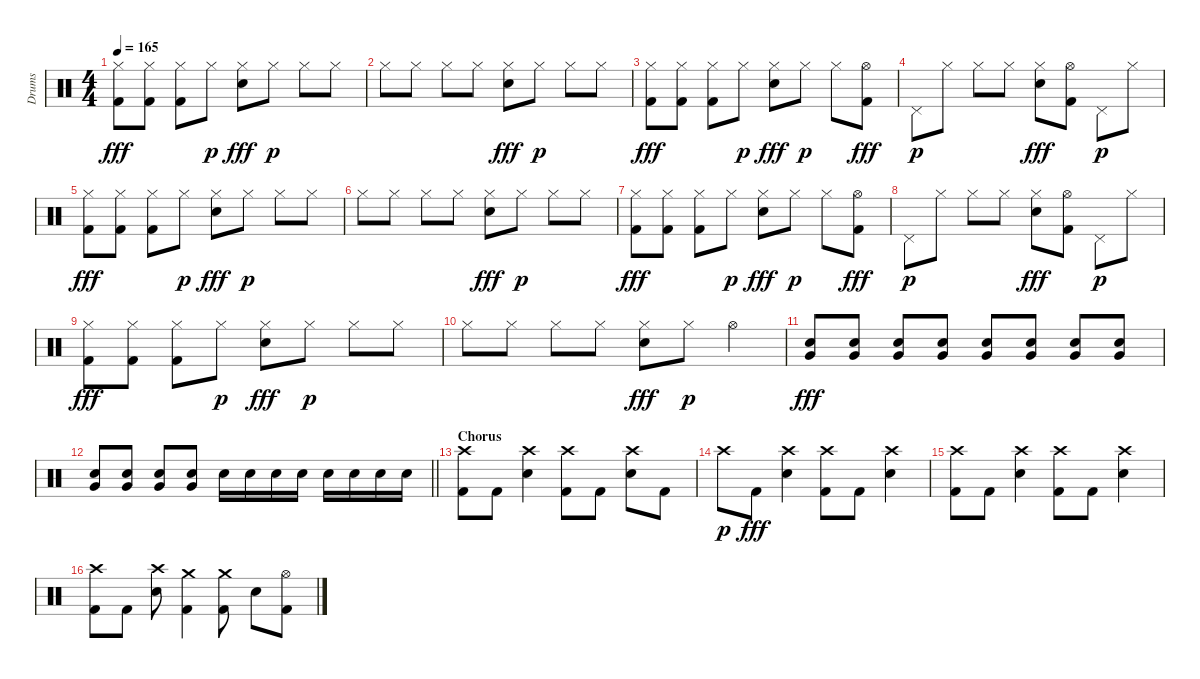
\track ("Drums" "Drums") {instrument percussion}
\staff {score}
\articulation defaults
\ts (4 4)
\tempo 165
\clef neutral
\ks c
("Hi-Hat (closed)" "Kick (hit) 2").8{dy fff} ("Hi-Hat (closed)" "Kick (hit) 2").8 ("Hi-Hat (closed)" "Kick (hit) 2").8 "Hi-Hat (closed)".8{dy p} ("Hi-Hat (closed)" "Electric Snare (hit)").8{dy fff} "Hi-Hat (closed)".8{dy p} "Hi-Hat (closed)".8 "Hi-Hat (closed)".8 |
"Hi-Hat (closed)".8 "Hi-Hat (closed)".8 "Hi-Hat (closed)".8 "Hi-Hat (closed)".8 ("Hi-Hat (closed)" "Electric Snare (hit)").8{dy fff} "Hi-Hat (closed)".8{dy p} "Hi-Hat (closed)".8 "Hi-Hat (closed)".8 |
("Hi-Hat (closed)" "Kick (hit) 2").8{dy fff} ("Hi-Hat (closed)" "Kick (hit) 2").8 ("Hi-Hat (closed)" "Kick (hit) 2").8 "Hi-Hat (closed)".8{dy p} ("Hi-Hat (closed)" "Electric Snare (hit)").8{dy fff} "Hi-Hat (closed)".8{dy p} "Hi-Hat (closed)".8 ("Hi-Hat (open)" "Kick (hit) 2").8{dy fff} |
"Pedal Hi-Hat (hit)".8{dy p} "Hi-Hat (closed)".8 "Hi-Hat (closed)".8 "Hi-Hat (closed)".8 ("Hi-Hat (closed)" "Electric Snare (hit)").8{dy fff} ("Hi-Hat (open)" "Kick (hit) 2").8 "Pedal Hi-Hat (hit)".8{dy p} "Hi-Hat (closed)".8 |
("Hi-Hat (closed)" "Kick (hit) 2").8{dy fff} ("Hi-Hat (closed)" "Kick (hit) 2").8 ("Hi-Hat (closed)" "Kick (hit) 2").8 "Hi-Hat (closed)".8{dy p} ("Hi-Hat (closed)" "Electric Snare (hit)").8{dy fff} "Hi-Hat (closed)".8{dy p} "Hi-Hat (closed)".8 "Hi-Hat (closed)".8 |
"Hi-Hat (closed)".8 "Hi-Hat (closed)".8 "Hi-Hat (closed)".8 "Hi-Hat (closed)".8 ("Hi-Hat (closed)" "Electric Snare (hit)").8{dy fff} "Hi-Hat (closed)".8{dy p} "Hi-Hat (closed)".8 "Hi-Hat (closed)".8 |
("Hi-Hat (closed)" "Kick (hit) 2").8{dy fff} ("Hi-Hat (closed)" "Kick (hit) 2").8 ("Hi-Hat (closed)" "Kick (hit) 2").8 "Hi-Hat (closed)".8{dy p} ("Hi-Hat (closed)" "Electric Snare (hit)").8{dy fff} "Hi-Hat (closed)".8{dy p} "Hi-Hat (closed)".8 ("Hi-Hat (open)" "Kick (hit) 2").8{dy fff} |
"Pedal Hi-Hat (hit)".8{dy p} "Hi-Hat (closed)".8 "Hi-Hat (closed)".8 "Hi-Hat (closed)".8 ("Hi-Hat (closed)" "Electric Snare (hit)").8{dy fff} ("Hi-Hat (open)" "Kick (hit) 2").8 "Pedal Hi-Hat (hit)".8{dy p} "Hi-Hat (closed)".8 |
("Hi-Hat (closed)" "Kick (hit) 2").8{dy fff} ("Hi-Hat (closed)" "Kick (hit) 2").8 ("Hi-Hat (closed)" "Kick (hit) 2").8 "Hi-Hat (closed)".8{dy p} ("Hi-Hat (closed)" "Electric Snare (hit)").8{dy fff} "Hi-Hat (closed)".8{dy p} "Hi-Hat (closed)".8 "Hi-Hat (closed)".8 |
"Hi-Hat (closed)".8 "Hi-Hat (closed)".8 "Hi-Hat (closed)".8 "Hi-Hat (closed)".8 ("Hi-Hat (closed)" "Electric Snare (hit)").8{dy fff} "Hi-Hat (closed)".8{dy p} "Hi-Hat (open)".4 |
("Snare (hit) 2" "Very Low Tom (hit)").8{dy fff} ("Snare (hit) 2" "Very Low Tom (hit)").8 ("Snare (hit) 2" "Very Low Tom (hit)").8 ("Snare (hit) 2" "Very Low Tom (hit)").8 ("Snare (hit) 2" "Very Low Tom (hit)").8 ("Snare (hit) 2" "Very Low Tom (hit)").8 ("Snare (hit) 2" "Very Low Tom (hit)").8 ("Snare (hit) 2" "Very Low Tom (hit)").8 |
\barLineRight lightlight
("Snare (hit) 2" "Very Low Tom (hit)").8 ("Snare (hit) 2" "Very Low Tom (hit)").8 ("Snare (hit) 2" "Very Low Tom (hit)").8 ("Snare (hit) 2" "Very Low Tom (hit)").8 "Snare (hit) 2".16 "Snare (hit) 2".16 "Snare (hit) 2".16 "Snare (hit) 2".16 "Snare (hit) 2".16 "Snare (hit) 2".16 "Snare (hit) 2".16 "Snare (hit) 2".16 |
\section ("" "Chorus")
("Crash high (hit)" "Kick (hit) 2").8 "Kick (hit) 2".8 ("Crash high (hit)" "Snare (hit) 2").4 ("Crash high (hit)" "Kick (hit) 2").8 "Kick (hit) 2".8 ("Crash high (hit)" "Snare (hit) 2").8 "Kick (hit) 2".8 |
"Crash high (hit)".8{dy p} "Kick (hit) 2".8{dy fff} ("Crash high (hit)" "Snare (hit) 2").4 ("Crash high (hit)" "Kick (hit) 2").8 "Kick (hit) 2".8 ("Crash high (hit)" "Snare (hit) 2").4 |
("Crash high (hit)" "Kick (hit) 2").8 "Kick (hit) 2".8 ("Crash high (hit)" "Snare (hit) 2").4 ("Crash high (hit)" "Kick (hit) 2").8 "Kick (hit) 2".8 ("Crash high (hit)" "Snare (hit) 2").4 |
("Crash high (hit)" "Kick (hit) 2").8 "Kick (hit) 2".8 ("Crash high (hit)" "Snare (hit) 2").8 ("Crash medium (hit)" "Kick (hit) 2").4 ("Crash medium (hit)" "Kick (hit) 2").8 "Snare (hit) 2".8 ("Hi-Hat (open)" "Kick (hit) 2").8
